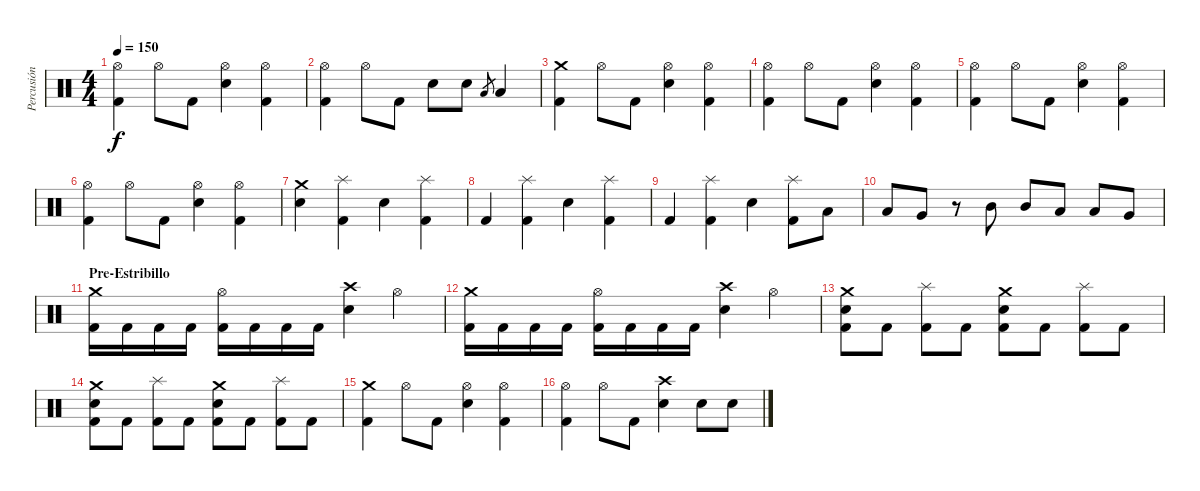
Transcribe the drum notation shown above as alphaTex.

\track ("Percusión" "Percusión") {instrument percussion}
\staff {score}
\articulation defaults
\ts (4 4)
\tempo 150
\clef neutral
\ks c
("Hi-Hat (open)" "Kick (hit) 2").4{dy f} "Hi-Hat (open)".8 "Kick (hit) 2".8 ("Hi-Hat (open)" "Snare (hit) 2").4 ("Hi-Hat (open)" "Kick (hit) 2").4 |
("Hi-Hat (open)" "Kick (hit) 2").4 "Hi-Hat (open)".8 "Kick (hit) 2".8 "Snare (hit) 2".8 "Snare (hit) 2".8 "Low Tom (hit)".8{gr} "Low Tom (hit)".4 |
("Crash medium (hit)" "Kick (hit) 2").4 "Hi-Hat (open)".8 "Kick (hit) 2".8 ("Hi-Hat (open)" "Snare (hit) 2").4 ("Hi-Hat (open)" "Kick (hit) 2").4 |
("Hi-Hat (open)" "Kick (hit) 2").4 "Hi-Hat (open)".8 "Kick (hit) 2".8 ("Hi-Hat (open)" "Snare (hit) 2").4 ("Hi-Hat (open)" "Kick (hit) 2").4 |
("Hi-Hat (open)" "Kick (hit) 2").4 "Hi-Hat (open)".8 "Kick (hit) 2".8 ("Hi-Hat (open)" "Snare (hit) 2").4 ("Hi-Hat (open)" "Kick (hit) 2").4 |
("Hi-Hat (open)" "Kick (hit) 2").4 "Hi-Hat (open)".8 "Kick (hit) 2".8 ("Hi-Hat (open)" "Snare (hit) 2").4 ("Hi-Hat (open)" "Kick (hit) 2").4 |
("Crash medium (hit)" "Snare (hit) 2").4 ("Splash (hit)" "Kick (hit) 2").4 "Snare (hit) 2".4 ("Splash (hit)" "Kick (hit) 2").4 |
"Kick (hit) 2".4 ("Splash (hit)" "Kick (hit) 2").4 "Snare (hit) 2".4 ("Splash (hit)" "Kick (hit) 2").4 |
"Kick (hit) 2".4 ("Splash (hit)" "Kick (hit) 2").4 "Snare (hit) 2".4 ("Splash (hit)" "Kick (hit) 2").8 "Low Tom (hit)".8 |
"Low Tom (hit)".8 "Very Low Tom (hit)".8 r.8 "Mid Tom (hit)".8 "Mid Tom (hit)".8 "Low Tom (hit)".8 "Low Tom (hit)".8 "Very Low Tom (hit)".8 |
\section ("" "Pre-Estribillo")
("Crash medium (hit)" "Kick (hit) 2").16 "Kick (hit) 2".16 "Kick (hit) 2".16 "Kick (hit) 2".16 ("Hi-Hat (open)" "Kick (hit) 2").16 "Kick (hit) 2".16 "Kick (hit) 2".16 "Kick (hit) 2".16 ("Crash high (hit)" "Snare (hit) 2").4 "Hi-Hat (open)".4 |
("Crash medium (hit)" "Kick (hit) 2").16 "Kick (hit) 2".16 "Kick (hit) 2".16 "Kick (hit) 2".16 ("Hi-Hat (open)" "Kick (hit) 2").16 "Kick (hit) 2".16 "Kick (hit) 2".16 "Kick (hit) 2".16 ("Crash high (hit)" "Snare (hit) 2").4 "Hi-Hat (open)".4 |
("Crash medium (hit)" "Kick (hit) 2" "Snare (hit) 2").8 "Kick (hit) 2".8 ("Splash (hit)" "Kick (hit) 2").8 "Kick (hit) 2".8 ("Crash medium (hit)" "Kick (hit) 2" "Snare (hit) 2").8 "Kick (hit) 2".8 ("Splash (hit)" "Kick (hit) 2").8 "Kick (hit) 2".8 |
("Crash medium (hit)" "Kick (hit) 2" "Snare (hit) 2").8 "Kick (hit) 2".8 ("Splash (hit)" "Kick (hit) 2").8 "Kick (hit) 2".8 ("Crash medium (hit)" "Kick (hit) 2" "Snare (hit) 2").8 "Kick (hit) 2".8 ("Splash (hit)" "Kick (hit) 2").8 "Kick (hit) 2".8 |
("Crash medium (hit)" "Kick (hit) 2").4 "Hi-Hat (open)".8 "Kick (hit) 2".8 ("Hi-Hat (open)" "Snare (hit) 2").4 ("Hi-Hat (open)" "Kick (hit) 2").4 |
("Hi-Hat (open)" "Kick (hit) 2").4 "Hi-Hat (open)".8 "Kick (hit) 2".8 ("Crash high (hit)" "Snare (hit) 2").4 "Snare (hit) 2".8 "Snare (hit) 2".8
